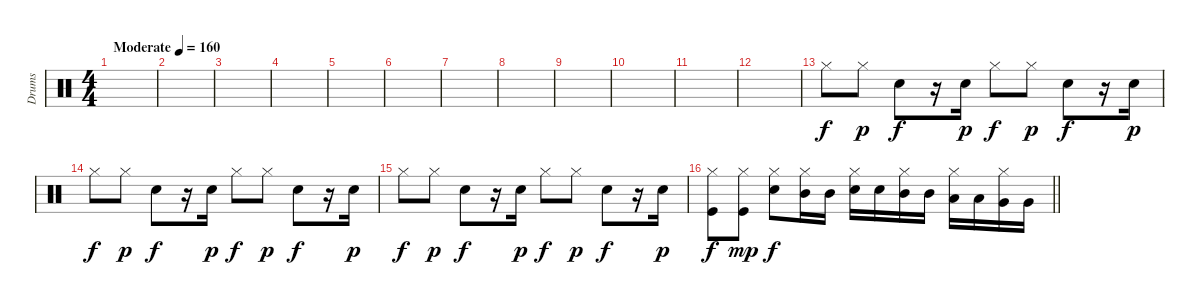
\track ("Drums " "Drums ") {instrument percussion}
\staff {score}
\articulation defaults
\ts (4 4)
\tempo (160 "Moderate")
\clef neutral
\ks c
|
|
|
|
|
|
|
|
|
|
|
|
"Hi-Hat (closed)".8 "Hi-Hat (closed)".8{dy p} "Electric Snare (hit)".8{dy f} r.16 "Electric Snare (hit)".16{dy p} "Hi-Hat (closed)".8{dy f} "Hi-Hat (closed)".8{dy p} "Electric Snare (hit)".8{dy f} r.16 "Electric Snare (hit)".16{dy p} |
"Hi-Hat (closed)".8{dy f} "Hi-Hat (closed)".8{dy p} "Electric Snare (hit)".8{dy f} r.16 "Electric Snare (hit)".16{dy p} "Hi-Hat (closed)".8{dy f} "Hi-Hat (closed)".8{dy p} "Electric Snare (hit)".8{dy f} r.16 "Electric Snare (hit)".16{dy p} |
"Hi-Hat (closed)".8{dy f} "Hi-Hat (closed)".8{dy p} "Electric Snare (hit)".8{dy f} r.16 "Electric Snare (hit)".16{dy p} "Hi-Hat (closed)".8{dy f} "Hi-Hat (closed)".8{dy p} "Electric Snare (hit)".8{dy f} r.16 "Electric Snare (hit)".16{dy p} |
\barLineRight lightlight
("Kick (hit)" "Hi-Hat (closed)").8{dy f} ("Kick (hit)" "Hi-Hat (closed)").8{dy mp} ("Snare (hit) 2" "Hi-Hat (closed)").8{dy f} ("Mid Tom (hit)" "Hi-Hat (closed)").16 "Mid Tom (hit)".16 ("Snare (hit) 2" "Hi-Hat (closed)").16 "Snare (hit) 2".16 ("Mid Tom (hit)" "Hi-Hat (closed)").16 "Mid Tom (hit)".16 ("Low Tom (hit)" "Hi-Hat (closed)").16 "Low Tom (hit)".16 ("Very Low Tom (hit)" "Hi-Hat (closed)").16 "Very Low Tom (hit)".16
